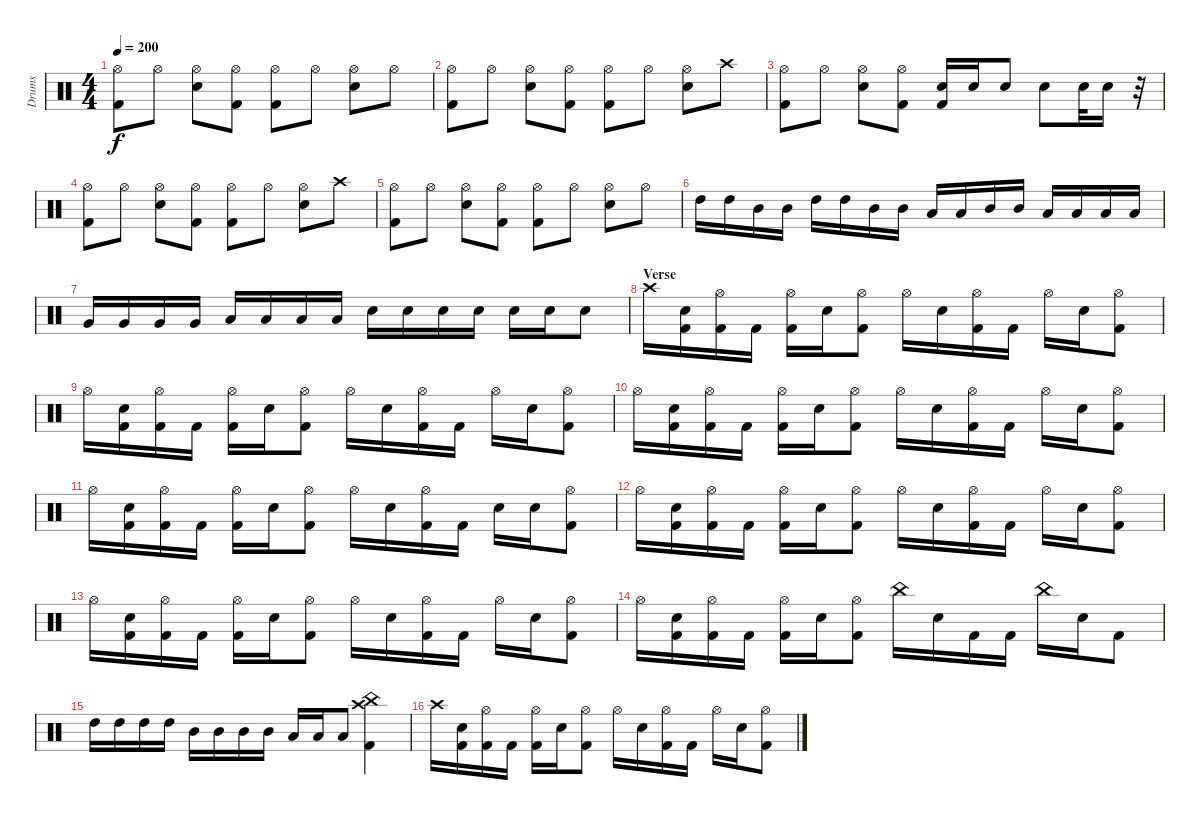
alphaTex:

\track ("Drums" "Drums") {instrument percussion}
\staff {score}
\articulation defaults
\ts (4 4)
\tempo 200
\clef neutral
\ks c
("Hi-Hat (open)" "Kick (hit) 2").8{dy f} "Hi-Hat (open)".8 ("Hi-Hat (open)" "Electric Snare (hit)").8 ("Hi-Hat (open)" "Kick (hit) 2").8 ("Hi-Hat (open)" "Kick (hit) 2").8 "Hi-Hat (open)".8 ("Hi-Hat (open)" "Electric Snare (hit)").8 "Hi-Hat (open)".8 |
("Hi-Hat (open)" "Kick (hit) 2").8 "Hi-Hat (open)".8 ("Hi-Hat (open)" "Electric Snare (hit)").8 ("Hi-Hat (open)" "Kick (hit) 2").8 ("Hi-Hat (open)" "Kick (hit) 2").8 "Hi-Hat (open)".8 ("Hi-Hat (open)" "Electric Snare (hit)").8 "Crash high (hit)".8 |
("Hi-Hat (open)" "Kick (hit) 2").8 "Hi-Hat (open)".8 ("Hi-Hat (open)" "Electric Snare (hit)").8 ("Hi-Hat (open)" "Kick (hit) 2").8 ("Electric Snare (hit)" "Kick (hit) 2").16 "Electric Snare (hit)".16 "Electric Snare (hit)".8 "Electric Snare (hit)".8 "Electric Snare (hit)".32 "Electric Snare (hit)".16 r.32 |
("Hi-Hat (open)" "Kick (hit) 2").8 "Hi-Hat (open)".8 ("Hi-Hat (open)" "Electric Snare (hit)").8 ("Hi-Hat (open)" "Kick (hit) 2").8 ("Hi-Hat (open)" "Kick (hit) 2").8 "Hi-Hat (open)".8 ("Hi-Hat (open)" "Electric Snare (hit)").8 "Crash high (hit)".8 |
("Hi-Hat (open)" "Kick (hit) 2").8 "Hi-Hat (open)".8 ("Hi-Hat (open)" "Electric Snare (hit)").8 ("Hi-Hat (open)" "Kick (hit) 2").8 ("Hi-Hat (open)" "Kick (hit) 2").8 "Hi-Hat (open)".8 ("Hi-Hat (open)" "Electric Snare (hit)").8 "Hi-Hat (open)".8 |
"High Tom (hit)".16 "High Tom (hit)".16 "Mid Tom (hit)".16 "Mid Tom (hit)".16 "High Tom (hit)".16 "High Tom (hit)".16 "Mid Tom (hit)".16 "Mid Tom (hit)".16 "Low Tom (hit)".16 "Low Tom (hit)".16 "Mid Tom (hit)".16 "Mid Tom (hit)".16 "Low Tom (hit)".16 "Low Tom (hit)".16 "Low Tom (hit)".16 "Low Tom (hit)".16 |
"Very Low Tom (hit)".16 "Very Low Tom (hit)".16 "Very Low Tom (hit)".16 "Very Low Tom (hit)".16 "Low Floor Tom (hit)".16 "Low Floor Tom (hit)".16 "Low Floor Tom (hit)".16 "Low Floor Tom (hit)".16 "Electric Snare (hit)".16 "Electric Snare (hit)".16 "Electric Snare (hit)".16 "Electric Snare (hit)".16 "Electric Snare (hit)".16 "Electric Snare (hit)".16 "Electric Snare (hit)".8 |
\section ("" "Verse")
"Crash high (hit)".16 ("Electric Snare (hit)" "Kick (hit) 2").16 ("Hi-Hat (open)" "Kick (hit) 2").16 "Kick (hit) 2".16 ("Hi-Hat (open)" "Kick (hit) 2").16 "Electric Snare (hit)".16 ("Hi-Hat (open)" "Kick (hit) 2").8 "Hi-Hat (open)".16 "Electric Snare (hit)".16 ("Hi-Hat (open)" "Kick (hit) 2").16 "Kick (hit) 2".16 "Hi-Hat (open)".16 "Electric Snare (hit)".16 ("Hi-Hat (open)" "Kick (hit) 2").8 |
"Hi-Hat (open)".16 ("Electric Snare (hit)" "Kick (hit) 2").16 ("Hi-Hat (open)" "Kick (hit) 2").16 "Kick (hit) 2".16 ("Hi-Hat (open)" "Kick (hit) 2").16 "Electric Snare (hit)".16 ("Hi-Hat (open)" "Kick (hit) 2").8 "Hi-Hat (open)".16 "Electric Snare (hit)".16 ("Hi-Hat (open)" "Kick (hit) 2").16 "Kick (hit) 2".16 "Hi-Hat (open)".16 "Electric Snare (hit)".16 ("Hi-Hat (open)" "Kick (hit) 2").8 |
"Hi-Hat (open)".16 ("Electric Snare (hit)" "Kick (hit) 2").16 ("Hi-Hat (open)" "Kick (hit) 2").16 "Kick (hit) 2".16 ("Hi-Hat (open)" "Kick (hit) 2").16 "Electric Snare (hit)".16 ("Hi-Hat (open)" "Kick (hit) 2").8 "Hi-Hat (open)".16 "Electric Snare (hit)".16 ("Hi-Hat (open)" "Kick (hit) 2").16 "Kick (hit) 2".16 "Hi-Hat (open)".16 "Electric Snare (hit)".16 ("Hi-Hat (open)" "Kick (hit) 2").8 |
"Hi-Hat (open)".16 ("Electric Snare (hit)" "Kick (hit) 2").16 ("Hi-Hat (open)" "Kick (hit) 2").16 "Kick (hit) 2".16 ("Hi-Hat (open)" "Kick (hit) 2").16 "Electric Snare (hit)".16 ("Hi-Hat (open)" "Kick (hit) 2").8 "Hi-Hat (open)".16 "Electric Snare (hit)".16 ("Hi-Hat (open)" "Kick (hit) 2").16 "Kick (hit) 2".16 "Electric Snare (hit)".16 "Electric Snare (hit)".16 ("Hi-Hat (open)" "Kick (hit) 2").8 |
"Hi-Hat (open)".16 ("Electric Snare (hit)" "Kick (hit) 2").16 ("Hi-Hat (open)" "Kick (hit) 2").16 "Kick (hit) 2".16 ("Hi-Hat (open)" "Kick (hit) 2").16 "Electric Snare (hit)".16 ("Hi-Hat (open)" "Kick (hit) 2").8 "Hi-Hat (open)".16 "Electric Snare (hit)".16 ("Hi-Hat (open)" "Kick (hit) 2").16 "Kick (hit) 2".16 "Hi-Hat (open)".16 "Electric Snare (hit)".16 ("Hi-Hat (open)" "Kick (hit) 2").8 |
"Hi-Hat (open)".16 ("Electric Snare (hit)" "Kick (hit) 2").16 ("Hi-Hat (open)" "Kick (hit) 2").16 "Kick (hit) 2".16 ("Hi-Hat (open)" "Kick (hit) 2").16 "Electric Snare (hit)".16 ("Hi-Hat (open)" "Kick (hit) 2").8 "Hi-Hat (open)".16 "Electric Snare (hit)".16 ("Hi-Hat (open)" "Kick (hit) 2").16 "Kick (hit) 2".16 "Hi-Hat (open)".16 "Electric Snare (hit)".16 ("Hi-Hat (open)" "Kick (hit) 2").8 |
"Hi-Hat (open)".16 ("Electric Snare (hit)" "Kick (hit) 2").16 ("Hi-Hat (open)" "Kick (hit) 2").16 "Kick (hit) 2".16 ("Hi-Hat (open)" "Kick (hit) 2").16 "Electric Snare (hit)".16 ("Hi-Hat (open)" "Kick (hit) 2").8 "China (hit)".16 "Electric Snare (hit)".16 "Kick (hit) 2".16 "Kick (hit) 2".16 "China (hit)".16 "Electric Snare (hit)".16 "Kick (hit) 2".8 |
"High Tom (hit)".16 "High Tom (hit)".16 "High Tom (hit)".16 "High Tom (hit)".16 "Mid Tom (hit)".16 "Mid Tom (hit)".16 "Mid Tom (hit)".16 "Mid Tom (hit)".16 "Low Tom (hit)".16 "Low Tom (hit)".16 "Low Tom (hit)".8 ("Crash high (hit)" "China (hit)" "Kick (hit) 2").4 |
"Crash high (hit)".16 ("Electric Snare (hit)" "Kick (hit) 2").16 ("Hi-Hat (open)" "Kick (hit) 2").16 "Kick (hit) 2".16 ("Hi-Hat (open)" "Kick (hit) 2").16 "Electric Snare (hit)".16 ("Hi-Hat (open)" "Kick (hit) 2").8 "Hi-Hat (open)".16 "Electric Snare (hit)".16 ("Hi-Hat (open)" "Kick (hit) 2").16 "Kick (hit) 2".16 "Hi-Hat (open)".16 "Electric Snare (hit)".16 ("Hi-Hat (open)" "Kick (hit) 2").8
